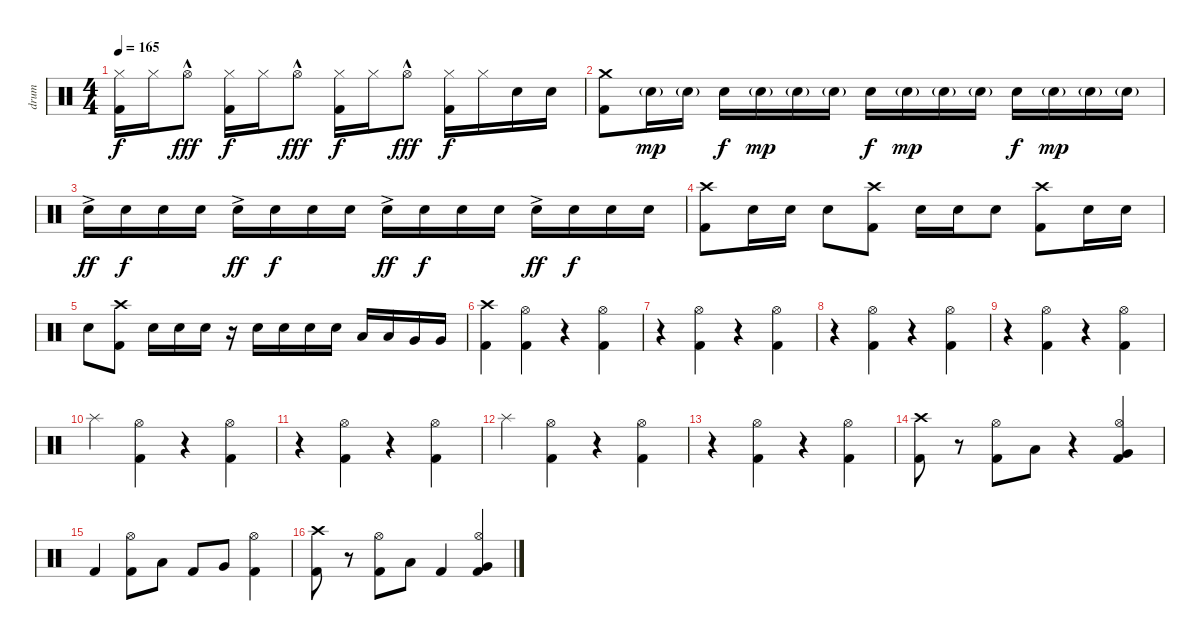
\track ("drum" "drum") {instrument percussion}
\staff {score}
\articulation defaults
\ts (4 4)
\tempo 165
\clef neutral
\ks c
("Hi-Hat (closed)" "Kick (hit) 2").16{dy f} "Hi-Hat (closed)".16 "Hi-Hat (open)"{hac}.8{dy fff} ("Hi-Hat (closed)" "Kick (hit) 2").16{dy f} "Hi-Hat (closed)".16 "Hi-Hat (open)"{hac}.8{dy fff} ("Hi-Hat (closed)" "Kick (hit) 2").16{dy f} "Hi-Hat (closed)".16 "Hi-Hat (open)"{hac}.8{dy fff} ("Hi-Hat (closed)" "Kick (hit) 2").16{dy f} "Hi-Hat (closed)".16 "Electric Snare (hit)".16 "Electric Snare (hit)".16 |
("Crash medium (hit)" "Kick (hit) 2").8 "Electric Snare (hit)"{g}.16{dy mp} "Electric Snare (hit)"{g}.16 "Electric Snare (hit)".16{dy f} "Electric Snare (hit)"{g}.16{dy mp} "Electric Snare (hit)"{g}.16 "Electric Snare (hit)"{g}.16 "Electric Snare (hit)".16{dy f} "Electric Snare (hit)"{g}.16{dy mp} "Electric Snare (hit)"{g}.16 "Electric Snare (hit)"{g}.16 "Electric Snare (hit)".16{dy f} "Electric Snare (hit)"{g}.16{dy mp} "Electric Snare (hit)"{g}.16 "Electric Snare (hit)"{g}.16 |
"Electric Snare (hit)"{ac}.16{dy ff} "Electric Snare (hit)".16{dy f} "Electric Snare (hit)".16 "Electric Snare (hit)".16 "Electric Snare (hit)"{ac}.16{dy ff} "Electric Snare (hit)".16{dy f} "Electric Snare (hit)".16 "Electric Snare (hit)".16 "Electric Snare (hit)"{ac}.16{dy ff} "Electric Snare (hit)".16{dy f} "Electric Snare (hit)".16 "Electric Snare (hit)".16 "Electric Snare (hit)"{ac}.16{dy ff} "Electric Snare (hit)".16{dy f} "Electric Snare (hit)".16 "Electric Snare (hit)".16 |
("Kick (hit) 2" "Crash high (hit)").8 "Electric Snare (hit)".16 "Electric Snare (hit)".16 "Electric Snare (hit)".8 ("Kick (hit) 2" "Crash high (hit)").8 "Electric Snare (hit)".16 "Electric Snare (hit)".16 "Electric Snare (hit)".8 ("Kick (hit) 2" "Crash high (hit)").8 "Electric Snare (hit)".16 "Electric Snare (hit)".16 |
"Electric Snare (hit)".8 ("Crash high (hit)" "Kick (hit) 2").8 "Electric Snare (hit)".16 "Electric Snare (hit)".16 "Electric Snare (hit)".16 r.16 "Electric Snare (hit)".16 "Electric Snare (hit)".16 "Electric Snare (hit)".16 "Electric Snare (hit)".16 "Low Tom (hit)".16 "Low Tom (hit)".16 "Very Low Tom (hit)".16 "Very Low Tom (hit)".16 |
("Kick (hit) 2" "Crash high (hit)").4 ("Kick (hit) 2" "Hi-Hat (open)").4 r.4 ("Kick (hit) 2" "Hi-Hat (open)").4 |
r.4 ("Kick (hit) 2" "Hi-Hat (open)").4 r.4 ("Kick (hit) 2" "Hi-Hat (open)").4 |
r.4 ("Kick (hit) 2" "Hi-Hat (open)").4 r.4 ("Kick (hit) 2" "Hi-Hat (open)").4 |
r.4 ("Kick (hit) 2" "Hi-Hat (open)").4 r.4 ("Kick (hit) 2" "Hi-Hat (open)").4 |
"Splash (hit)".4 ("Kick (hit) 2" "Hi-Hat (open)").4 r.4 ("Kick (hit) 2" "Hi-Hat (open)").4 |
r.4 ("Kick (hit) 2" "Hi-Hat (open)").4 r.4 ("Kick (hit) 2" "Hi-Hat (open)").4 |
"Splash (hit)".4 ("Kick (hit) 2" "Hi-Hat (open)").4 r.4 ("Kick (hit) 2" "Hi-Hat (open)").4 |
r.4 ("Kick (hit) 2" "Hi-Hat (open)").4 r.4 ("Kick (hit) 2" "Hi-Hat (open)").4 |
("Crash high (hit)" "Kick (hit) 2").8 r.8 ("Hi-Hat (open)" "Kick (hit) 2").8 "Low Tom (hit)".8 r.4 ("Very Low Tom (hit)" "Kick (hit) 2" "Hi-Hat (open)").4 |
"Kick (hit) 2".4 ("Hi-Hat (open)" "Kick (hit) 2").8 "Low Tom (hit)".8 "Kick (hit) 2".8 "Very Low Tom (hit)".8 ("Kick (hit) 2" "Hi-Hat (open)").4 |
("Crash high (hit)" "Kick (hit) 2").8 r.8 ("Hi-Hat (open)" "Kick (hit) 2").8 "Low Tom (hit)".8 "Kick (hit) 2".4 ("Very Low Tom (hit)" "Kick (hit) 2" "Hi-Hat (open)").4
